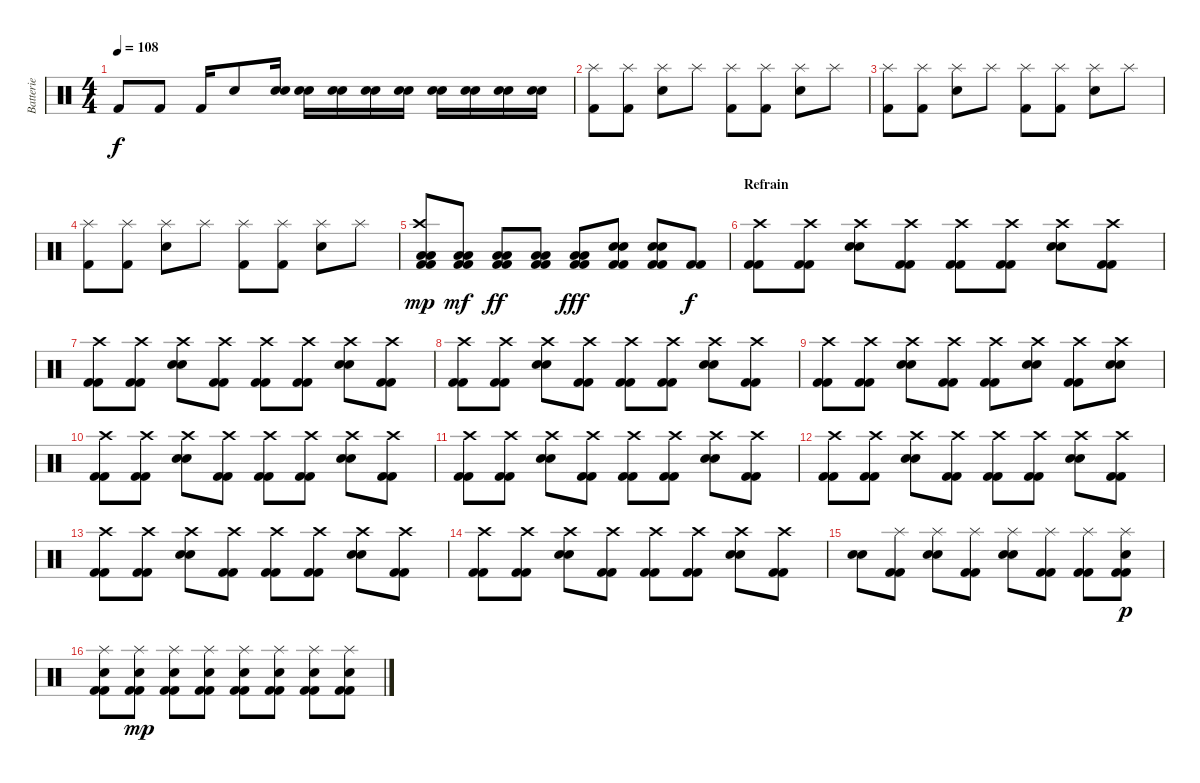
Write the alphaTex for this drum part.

\track ("Batterie" "Batterie") {instrument percussion}
\staff {score}
\articulation defaults
\ts (4 4)
\tempo 108
\clef neutral
\ks c "Kick (hit) 2".8{dy f} "Kick (hit) 2".8 "Kick (hit) 2".16 "Electric Snare (hit)".8
("Electric Snare (hit)" "Electric Snare (hit)").16 ("Electric Snare (hit)" "Electric Snare (hit)").16 ("Electric Snare (hit)" "Electric Snare (hit)").16 ("Electric Snare (hit)" "Electric Snare (hit)").16 ("Electric Snare (hit)" "Electric Snare (hit)").16 ("Electric Snare (hit)" "Electric Snare (hit)").16 ("Electric Snare (hit)" "Electric Snare (hit)").16 ("Electric Snare (hit)" "Electric Snare (hit)").16 ("Electric Snare (hit)" "Electric Snare (hit)").16 |
("Splash (hit)" "Kick (hit) 2").8 ("Splash (hit)" "Kick (hit) 2").8 ("Electric Snare (hit)" "Splash (hit)").8 "Splash (hit)".8 ("Splash (hit)" "Kick (hit) 2").8 ("Splash (hit)" "Kick (hit) 2").8 ("Electric Snare (hit)" "Splash (hit)").8 "Splash (hit)".8 |
("Splash (hit)" "Kick (hit) 2").8 ("Splash (hit)" "Kick (hit) 2").8 ("Electric Snare (hit)" "Splash (hit)").8 "Splash (hit)".8 ("Splash (hit)" "Kick (hit) 2").8 ("Splash (hit)" "Kick (hit) 2").8 ("Electric Snare (hit)" "Splash (hit)").8 "Splash (hit)".8 |
("Splash (hit)" "Kick (hit) 2").8 ("Splash (hit)" "Kick (hit) 2").8 ("Electric Snare (hit)" "Splash (hit)").8 "Splash (hit)".8 ("Splash (hit)" "Kick (hit) 2").8 ("Splash (hit)" "Kick (hit) 2").8 ("Electric Snare (hit)" "Splash (hit)").8 "Splash (hit)".8 |
("Crash high (hit)" "Low Floor Tom (hit)" "Low Floor Tom (hit)" "Kick (hit) 2" "Kick (hit) 2").8{dy mp} ("Low Floor Tom (hit)" "Low Floor Tom (hit)" "Kick (hit) 2" "Kick (hit) 2").8{dy mf} ("Low Floor Tom (hit)" "Low Floor Tom (hit)" "Kick (hit) 2" "Kick (hit) 2").8{dy ff} ("Low Floor Tom (hit)" "Low Floor Tom (hit)" "Kick (hit) 2" "Kick (hit) 2").8 ("Low Floor Tom (hit)" "Low Floor Tom (hit)" "Kick (hit) 2" "Kick (hit) 2").8{dy fff} ("Electric Snare (hit)" "Electric Snare (hit)" "Kick (hit) 2" "Kick (hit) 2").8 ("Electric Snare (hit)" "Electric Snare (hit)" "Kick (hit) 2" "Kick (hit) 2").8 ("Kick (hit) 2" "Kick (hit) 2").8{dy f} |
\section ("" "Refrain")
("Crash high (hit)" "Kick (hit) 2" "Kick (hit) 2").8 ("Crash high (hit)" "Kick (hit) 2" "Kick (hit) 2").8 ("Crash high (hit)" "Electric Snare (hit)" "Electric Snare (hit)").8 ("Crash high (hit)" "Kick (hit) 2" "Kick (hit) 2").8 ("Crash high (hit)" "Kick (hit) 2" "Kick (hit) 2").8 ("Crash high (hit)" "Kick (hit) 2" "Kick (hit) 2").8 ("Crash high (hit)" "Electric Snare (hit)" "Electric Snare (hit)").8 ("Crash high (hit)" "Kick (hit) 2" "Kick (hit) 2").8 |
("Crash high (hit)" "Kick (hit) 2" "Kick (hit) 2").8 ("Crash high (hit)" "Kick (hit) 2" "Kick (hit) 2").8 ("Crash high (hit)" "Electric Snare (hit)" "Electric Snare (hit)").8 ("Crash high (hit)" "Kick (hit) 2" "Kick (hit) 2").8 ("Crash high (hit)" "Kick (hit) 2" "Kick (hit) 2").8 ("Crash high (hit)" "Kick (hit) 2" "Kick (hit) 2").8 ("Crash high (hit)" "Electric Snare (hit)" "Electric Snare (hit)").8 ("Crash high (hit)" "Kick (hit) 2" "Kick (hit) 2").8 |
("Crash high (hit)" "Kick (hit) 2" "Kick (hit) 2").8 ("Crash high (hit)" "Kick (hit) 2" "Kick (hit) 2").8 ("Crash high (hit)" "Electric Snare (hit)" "Electric Snare (hit)").8 ("Crash high (hit)" "Kick (hit) 2" "Kick (hit) 2").8 ("Crash high (hit)" "Kick (hit) 2" "Kick (hit) 2").8 ("Crash high (hit)" "Kick (hit) 2" "Kick (hit) 2").8 ("Crash high (hit)" "Electric Snare (hit)" "Electric Snare (hit)").8 ("Crash high (hit)" "Kick (hit) 2" "Kick (hit) 2").8 |
("Crash high (hit)" "Kick (hit) 2" "Kick (hit) 2").8 ("Crash high (hit)" "Kick (hit) 2" "Kick (hit) 2").8 ("Crash high (hit)" "Electric Snare (hit)" "Electric Snare (hit)").8 ("Crash high (hit)" "Kick (hit) 2" "Kick (hit) 2").8 ("Crash high (hit)" "Kick (hit) 2" "Kick (hit) 2").8 ("Crash high (hit)" "Electric Snare (hit)" "Electric Snare (hit)").8 ("Crash high (hit)" "Kick (hit) 2" "Kick (hit) 2").8 ("Crash high (hit)" "Electric Snare (hit)" "Electric Snare (hit)").8 |
("Crash high (hit)" "Kick (hit) 2" "Kick (hit) 2").8 ("Crash high (hit)" "Kick (hit) 2" "Kick (hit) 2").8 ("Crash high (hit)" "Electric Snare (hit)" "Electric Snare (hit)").8 ("Crash high (hit)" "Kick (hit) 2" "Kick (hit) 2").8 ("Crash high (hit)" "Kick (hit) 2" "Kick (hit) 2").8 ("Crash high (hit)" "Kick (hit) 2" "Kick (hit) 2").8 ("Crash high (hit)" "Electric Snare (hit)" "Electric Snare (hit)").8 ("Crash high (hit)" "Kick (hit) 2" "Kick (hit) 2").8 |
("Crash high (hit)" "Kick (hit) 2" "Kick (hit) 2").8 ("Crash high (hit)" "Kick (hit) 2" "Kick (hit) 2").8 ("Crash high (hit)" "Electric Snare (hit)" "Electric Snare (hit)").8 ("Crash high (hit)" "Kick (hit) 2" "Kick (hit) 2").8 ("Crash high (hit)" "Kick (hit) 2" "Kick (hit) 2").8 ("Crash high (hit)" "Kick (hit) 2" "Kick (hit) 2").8 ("Crash high (hit)" "Electric Snare (hit)" "Electric Snare (hit)").8 ("Crash high (hit)" "Kick (hit) 2" "Kick (hit) 2").8 |
("Crash high (hit)" "Kick (hit) 2" "Kick (hit) 2").8 ("Crash high (hit)" "Kick (hit) 2" "Kick (hit) 2").8 ("Crash high (hit)" "Electric Snare (hit)" "Electric Snare (hit)").8 ("Crash high (hit)" "Kick (hit) 2" "Kick (hit) 2").8 ("Crash high (hit)" "Kick (hit) 2" "Kick (hit) 2").8 ("Crash high (hit)" "Kick (hit) 2" "Kick (hit) 2").8 ("Crash high (hit)" "Electric Snare (hit)" "Electric Snare (hit)").8 ("Crash high (hit)" "Kick (hit) 2" "Kick (hit) 2").8 |
("Crash high (hit)" "Kick (hit) 2" "Kick (hit) 2").8 ("Crash high (hit)" "Kick (hit) 2" "Kick (hit) 2").8 ("Crash high (hit)" "Electric Snare (hit)" "Electric Snare (hit)").8 ("Crash high (hit)" "Kick (hit) 2" "Kick (hit) 2").8 ("Crash high (hit)" "Kick (hit) 2" "Kick (hit) 2").8 ("Crash high (hit)" "Kick (hit) 2" "Kick (hit) 2").8 ("Crash high (hit)" "Electric Snare (hit)" "Electric Snare (hit)").8 ("Crash high (hit)" "Kick (hit) 2" "Kick (hit) 2").8 |
\section ("" "")
("Crash high (hit)" "Kick (hit) 2" "Kick (hit) 2").8 ("Crash high (hit)" "Kick (hit) 2" "Kick (hit) 2").8 ("Crash high (hit)" "Electric Snare (hit)" "Electric Snare (hit)").8 ("Crash high (hit)" "Kick (hit) 2" "Kick (hit) 2").8 ("Crash high (hit)" "Kick (hit) 2" "Kick (hit) 2").8 ("Crash high (hit)" "Kick (hit) 2" "Kick (hit) 2").8 ("Crash high (hit)" "Electric Snare (hit)" "Electric Snare (hit)").8 ("Crash high (hit)" "Kick (hit) 2" "Kick (hit) 2").8 |
("Electric Snare (hit)" "Electric Snare (hit)").8 ("Splash (hit)" "Kick (hit) 2" "Kick (hit) 2").8 ("Splash (hit)" "Electric Snare (hit)" "Electric Snare (hit)").8 ("Splash (hit)" "Kick (hit) 2" "Kick (hit) 2").8 ("Splash (hit)" "Electric Snare (hit)" "Electric Snare (hit)").8 ("Splash (hit)" "Kick (hit) 2" "Kick (hit) 2").8 ("Splash (hit)" "Kick (hit) 2" "Kick (hit) 2").8 ("Splash (hit)" "Electric Snare (hit)" "Kick (hit) 2" "Kick (hit) 2").8{dy p} |
("Splash (hit)" "Electric Snare (hit)" "Kick (hit) 2" "Kick (hit) 2").8 ("Splash (hit)" "Electric Snare (hit)" "Kick (hit) 2" "Kick (hit) 2").8{dy mp} ("Splash (hit)" "Electric Snare (hit)" "Kick (hit) 2" "Kick (hit) 2").8 ("Splash (hit)" "Electric Snare (hit)" "Kick (hit) 2" "Kick (hit) 2").8 ("Splash (hit)" "Electric Snare (hit)" "Kick (hit) 2" "Kick (hit) 2").8 ("Splash (hit)" "Electric Snare (hit)" "Kick (hit) 2" "Kick (hit) 2").8 ("Splash (hit)" "Electric Snare (hit)" "Kick (hit) 2" "Kick (hit) 2").8 ("Splash (hit)" "Electric Snare (hit)" "Kick (hit) 2" "Kick (hit) 2").8
